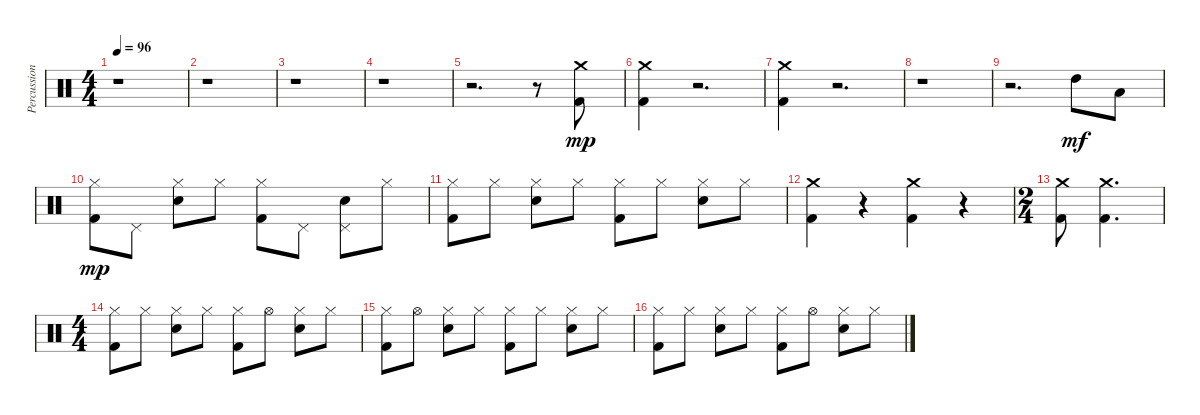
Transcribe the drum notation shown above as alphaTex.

\track ("Percussion" "Percussion") {instrument percussion}
\staff {score}
\articulation defaults
\ts (4 4)
\tempo 96
\clef neutral
\ks c
r.1{dy mp} |
r.1 |
r.1 |
r.1 |
r.2{d} r.8 ("Crash medium (hit)" "Kick (hit) 2").8 |
("Crash medium (hit)" "Kick (hit) 2").4 r.2{d} |
("Crash medium (hit)" "Kick (hit) 2").4 r.2{d} |
r.1 |
r.2{d} "High Tom (hit)".8{dy mf} "Low Tom (hit)".8 |
("Hi-Hat (closed)" "Kick (hit) 2").8{dy mp} "Pedal Hi-Hat (hit)".8 ("Hi-Hat (closed)" "Snare (hit) 2").8 "Hi-Hat (closed)".8 ("Hi-Hat (closed)" "Kick (hit) 2").8 "Pedal Hi-Hat (hit)".8 ("Pedal Hi-Hat (hit)" "Snare (hit) 2").8 "Hi-Hat (closed)".8 |
("Hi-Hat (closed)" "Kick (hit) 2").8 "Hi-Hat (closed)".8 ("Hi-Hat (closed)" "Snare (hit) 2").8 "Hi-Hat (closed)".8 ("Hi-Hat (closed)" "Kick (hit) 2").8 "Hi-Hat (closed)".8 ("Hi-Hat (closed)" "Snare (hit) 2").8 "Hi-Hat (closed)".8 |
("Crash medium (hit)" "Kick (hit) 2").4 r.4 ("Crash medium (hit)" "Kick (hit) 2").4 r.4 |
\ts (2 4)
("Crash medium (hit)" "Kick (hit) 2").8 ("Crash medium (hit)" "Kick (hit) 2").4{d} |
\ts (4 4)
("Hi-Hat (closed)" "Kick (hit) 2").8 "Hi-Hat (closed)".8 ("Hi-Hat (closed)" "Snare (hit) 2").8 "Hi-Hat (closed)".8 ("Hi-Hat (closed)" "Kick (hit) 2").8 "Hi-Hat (open)".8 ("Hi-Hat (closed)" "Snare (hit) 2").8 "Hi-Hat (closed)".8 |
("Hi-Hat (closed)" "Kick (hit) 2").8 "Hi-Hat (open)".8 ("Hi-Hat (closed)" "Snare (hit) 2").8 "Hi-Hat (closed)".8 ("Hi-Hat (closed)" "Kick (hit) 2").8 "Hi-Hat (closed)".8 ("Hi-Hat (closed)" "Snare (hit) 2").8 "Hi-Hat (closed)".8 |
("Hi-Hat (closed)" "Kick (hit) 2").8 "Hi-Hat (closed)".8 ("Hi-Hat (closed)" "Snare (hit) 2").8 "Hi-Hat (closed)".8 ("Hi-Hat (closed)" "Kick (hit) 2").8 "Hi-Hat (open)".8 ("Hi-Hat (closed)" "Snare (hit) 2").8 "Hi-Hat (closed)".8
